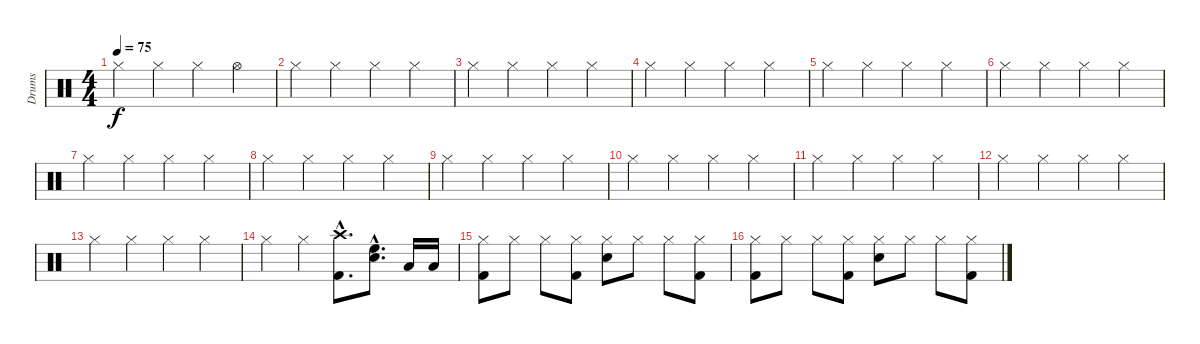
\track ("Drums" "Drums") {instrument percussion}
\staff {score}
\articulation defaults
\ts (4 4)
\tempo 75
\clef neutral
\ks c "Hi-Hat (closed)".4{dy f} "Hi-Hat (closed)".4 "Hi-Hat (closed)".4 "Hi-Hat (open)".4
|
"Hi-Hat (closed)".4 "Hi-Hat (closed)".4 "Hi-Hat (closed)".4 "Hi-Hat (closed)".4 |
"Hi-Hat (closed)".4 "Hi-Hat (closed)".4 "Hi-Hat (closed)".4 "Hi-Hat (closed)".4 |
"Hi-Hat (closed)".4 "Hi-Hat (closed)".4 "Hi-Hat (closed)".4 "Hi-Hat (closed)".4 |
"Hi-Hat (closed)".4 "Hi-Hat (closed)".4 "Hi-Hat (closed)".4 "Hi-Hat (closed)".4 |
"Hi-Hat (closed)".4 "Hi-Hat (closed)".4 "Hi-Hat (closed)".4 "Hi-Hat (closed)".4 |
"Hi-Hat (closed)".4 "Hi-Hat (closed)".4 "Hi-Hat (closed)".4 "Hi-Hat (closed)".4 |
"Hi-Hat (closed)".4 "Hi-Hat (closed)".4 "Hi-Hat (closed)".4 "Hi-Hat (closed)".4 |
"Hi-Hat (closed)".4 "Hi-Hat (closed)".4 "Hi-Hat (closed)".4 "Hi-Hat (closed)".4 |
"Hi-Hat (closed)".4 "Hi-Hat (closed)".4 "Hi-Hat (closed)".4 "Hi-Hat (closed)".4 |
"Hi-Hat (closed)".4 "Hi-Hat (closed)".4 "Hi-Hat (closed)".4 "Hi-Hat (closed)".4 |
"Hi-Hat (closed)".4 "Hi-Hat (closed)".4 "Hi-Hat (closed)".4 "Hi-Hat (closed)".4 |
"Hi-Hat (closed)".4 "Hi-Hat (closed)".4 "Hi-Hat (closed)".4 "Hi-Hat (closed)".4 |
"Hi-Hat (closed)".4 "Hi-Hat (closed)".4 ("Kick (hit) 2"{hac} "Crash high (hit)"{hac}).8{d} ("Snare (hit) 2"{hac} "High Floor Tom (hit)"{hac}).8{d} "Low Tom (hit)".16 "Low Tom (hit)".16 |
("Kick (hit) 2" "Hi-Hat (closed)").8 "Hi-Hat (closed)".8 "Hi-Hat (closed)".8 ("Kick (hit) 2" "Hi-Hat (closed)").8 ("Snare (hit) 2" "Hi-Hat (closed)").8 "Hi-Hat (closed)".8 "Hi-Hat (closed)".8 ("Kick (hit) 2" "Hi-Hat (closed)").8 |
("Kick (hit) 2" "Hi-Hat (closed)").8 "Hi-Hat (closed)".8 "Hi-Hat (closed)".8 ("Kick (hit) 2" "Hi-Hat (closed)").8 ("Snare (hit) 2" "Hi-Hat (closed)").8 "Hi-Hat (closed)".8 "Hi-Hat (closed)".8 ("Kick (hit) 2" "Hi-Hat (closed)").8
